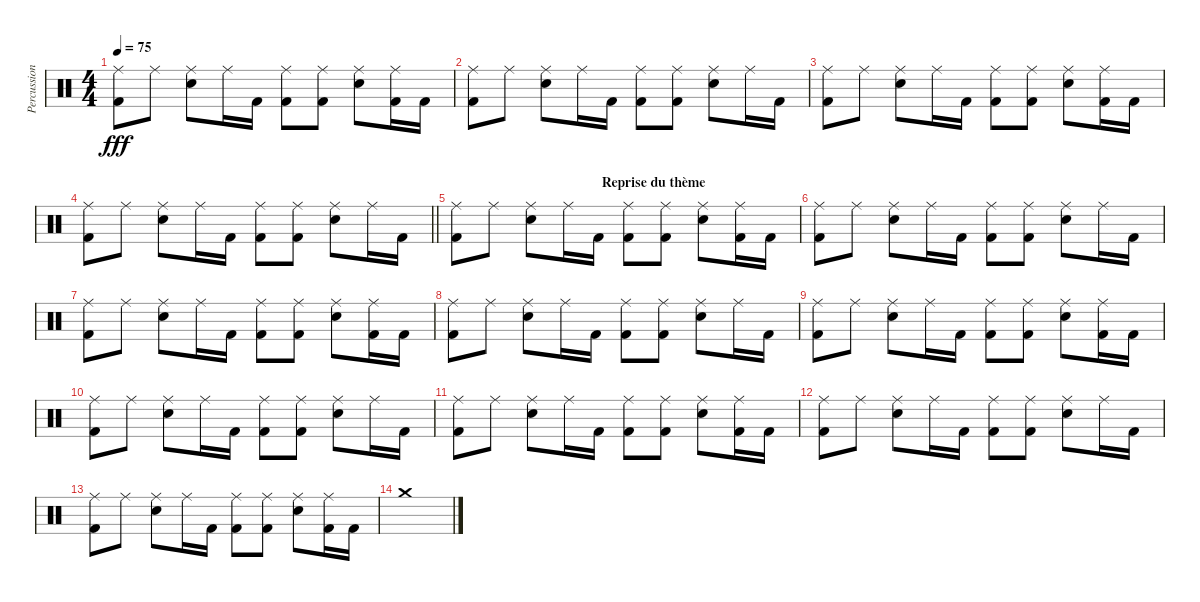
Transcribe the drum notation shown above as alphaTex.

\track ("Percussions" "Percussion") {instrument percussion}
\staff {score}
\articulation defaults
\ts (4 4)
\tempo 75
\clef neutral
\ks c
("Kick (hit) 2" "Ride (middle)").8{dy fff} "Ride (middle)".8 ("Ride (middle)" "Snare (hit) 2").8 "Ride (middle)".16 "Kick (hit) 2".16 ("Ride (middle)" "Kick (hit) 2").8 ("Kick (hit) 2" "Ride (middle)").8 ("Ride (middle)" "Snare (hit) 2").8 ("Ride (middle)" "Kick (hit) 2").16 "Kick (hit) 2".16 |
("Kick (hit) 2" "Ride (middle)").8 "Ride (middle)".8 ("Ride (middle)" "Snare (hit) 2").8 "Ride (middle)".16 "Kick (hit) 2".16 ("Ride (middle)" "Kick (hit) 2").8 ("Kick (hit) 2" "Ride (middle)").8 ("Ride (middle)" "Snare (hit) 2").8 "Ride (middle)".16 "Kick (hit) 2".16 |
("Kick (hit) 2" "Ride (middle)").8 "Ride (middle)".8 ("Ride (middle)" "Snare (hit) 2").8 "Ride (middle)".16 "Kick (hit) 2".16 ("Ride (middle)" "Kick (hit) 2").8 ("Kick (hit) 2" "Ride (middle)").8 ("Ride (middle)" "Snare (hit) 2").8 ("Ride (middle)" "Kick (hit) 2").16 "Kick (hit) 2".16 |
\barLineRight lightlight
("Kick (hit) 2" "Ride (middle)").8 "Ride (middle)".8 ("Ride (middle)" "Snare (hit) 2").8 "Ride (middle)".16 "Kick (hit) 2".16 ("Ride (middle)" "Kick (hit) 2").8 ("Kick (hit) 2" "Ride (middle)").8 ("Ride (middle)" "Snare (hit) 2").8 "Ride (middle)".16 "Kick (hit) 2".16 |
\section ("" "                                           Reprise du thème")
("Kick (hit) 2" "Ride (middle)").8 "Ride (middle)".8 ("Ride (middle)" "Snare (hit) 2").8 "Ride (middle)".16 "Kick (hit) 2".16 ("Ride (middle)" "Kick (hit) 2").8 ("Kick (hit) 2" "Ride (middle)").8 ("Ride (middle)" "Snare (hit) 2").8 ("Ride (middle)" "Kick (hit) 2").16 "Kick (hit) 2".16 |
("Kick (hit) 2" "Ride (middle)").8 "Ride (middle)".8 ("Ride (middle)" "Snare (hit) 2").8 "Ride (middle)".16 "Kick (hit) 2".16 ("Ride (middle)" "Kick (hit) 2").8 ("Kick (hit) 2" "Ride (middle)").8 ("Ride (middle)" "Snare (hit) 2").8 "Ride (middle)".16 "Kick (hit) 2".16 |
("Kick (hit) 2" "Ride (middle)").8 "Ride (middle)".8 ("Ride (middle)" "Snare (hit) 2").8 "Ride (middle)".16 "Kick (hit) 2".16 ("Ride (middle)" "Kick (hit) 2").8 ("Kick (hit) 2" "Ride (middle)").8 ("Ride (middle)" "Snare (hit) 2").8 ("Ride (middle)" "Kick (hit) 2").16 "Kick (hit) 2".16 |
("Kick (hit) 2" "Ride (middle)").8 "Ride (middle)".8 ("Ride (middle)" "Snare (hit) 2").8 "Ride (middle)".16 "Kick (hit) 2".16 ("Ride (middle)" "Kick (hit) 2").8 ("Kick (hit) 2" "Ride (middle)").8 ("Ride (middle)" "Snare (hit) 2").8 "Ride (middle)".16 "Kick (hit) 2".16 |
("Kick (hit) 2" "Ride (middle)").8 "Ride (middle)".8 ("Ride (middle)" "Snare (hit) 2").8 "Ride (middle)".16 "Kick (hit) 2".16 ("Ride (middle)" "Kick (hit) 2").8 ("Kick (hit) 2" "Ride (middle)").8 ("Ride (middle)" "Snare (hit) 2").8 ("Ride (middle)" "Kick (hit) 2").16 "Kick (hit) 2".16 |
("Kick (hit) 2" "Ride (middle)").8 "Ride (middle)".8 ("Ride (middle)" "Snare (hit) 2").8 "Ride (middle)".16 "Kick (hit) 2".16 ("Ride (middle)" "Kick (hit) 2").8 ("Kick (hit) 2" "Ride (middle)").8 ("Ride (middle)" "Snare (hit) 2").8 "Ride (middle)".16 "Kick (hit) 2".16 |
("Kick (hit) 2" "Ride (middle)").8 "Ride (middle)".8 ("Ride (middle)" "Snare (hit) 2").8 "Ride (middle)".16 "Kick (hit) 2".16 ("Ride (middle)" "Kick (hit) 2").8 ("Kick (hit) 2" "Ride (middle)").8 ("Ride (middle)" "Snare (hit) 2").8 ("Ride (middle)" "Kick (hit) 2").16 "Kick (hit) 2".16 |
("Kick (hit) 2" "Ride (middle)").8 "Ride (middle)".8 ("Ride (middle)" "Snare (hit) 2").8 "Ride (middle)".16 "Kick (hit) 2".16 ("Ride (middle)" "Kick (hit) 2").8 ("Kick (hit) 2" "Ride (middle)").8 ("Ride (middle)" "Snare (hit) 2").8 "Ride (middle)".16 "Kick (hit) 2".16 |
("Kick (hit) 2" "Ride (middle)").8 "Ride (middle)".8 ("Ride (middle)" "Snare (hit) 2").8 "Ride (middle)".16 "Kick (hit) 2".16 ("Ride (middle)" "Kick (hit) 2").8 ("Kick (hit) 2" "Ride (middle)").8 ("Ride (middle)" "Snare (hit) 2").8 ("Ride (middle)" "Kick (hit) 2").16 "Kick (hit) 2".16 |
"Crash medium (hit)".1
